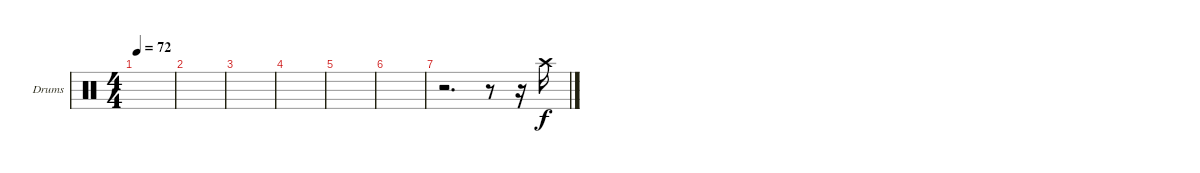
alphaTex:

\defaultSystemsLayout 4
\bracketExtendMode groupsimilarinstruments
\firstSystemTrackNameOrientation horizontal
\otherSystemsTrackNameOrientation horizontal
\track ("Drumkit" "Drums") {instrument percussion}
\staff {score}
\articulation defaults
\ts (4 4)
\tempo 72
\clef neutral
\ks c
|
|
|
|
|
|
r.2{d} r.8 r.16 "Crash high (hit)".16
